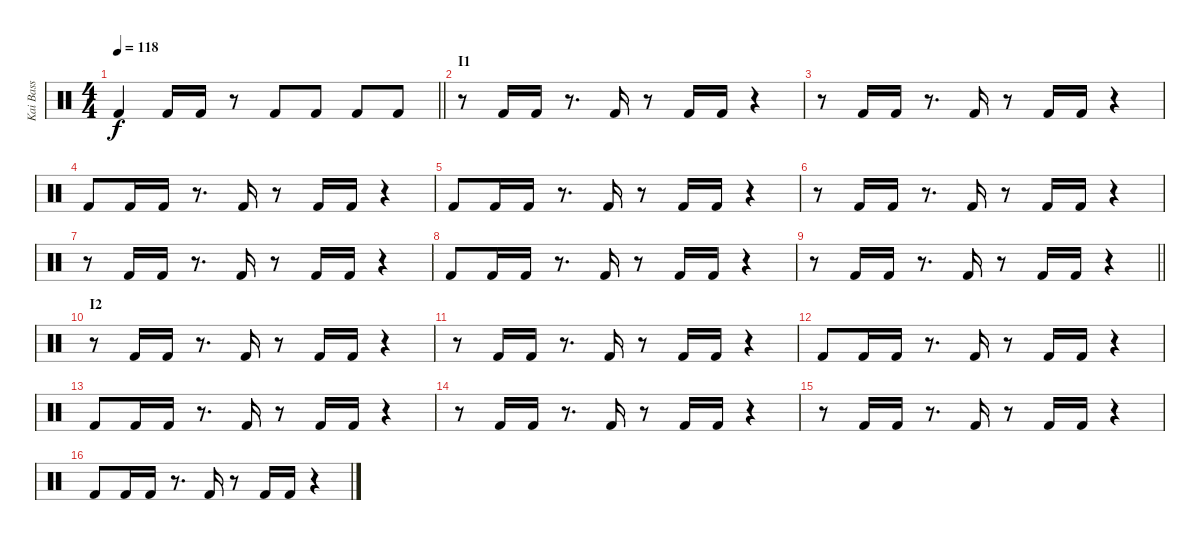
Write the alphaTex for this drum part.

\track ("Kai Bass" "Kai Bass") {instrument percussion}
\staff {score}
\articulation defaults
\ts (4 4)
\tempo 118
\clef neutral
\barLineRight lightlight
\ks c "Kick (hit) 2".4{dy f} "Kick (hit) 2".16 "Kick (hit) 2".16
r.8 "Kick (hit) 2".8 "Kick (hit) 2".8 "Kick (hit) 2".8 "Kick (hit) 2".8 |
\section ("" "I1")
r.8 "Kick (hit) 2".16 "Kick (hit) 2".16 r.8{d} "Kick (hit) 2".16 r.8 "Kick (hit) 2".16 "Kick (hit) 2".16 r.4 |
r.8 "Kick (hit) 2".16 "Kick (hit) 2".16 r.8{d} "Kick (hit) 2".16 r.8 "Kick (hit) 2".16 "Kick (hit) 2".16 r.4 |
"Kick (hit) 2".8 "Kick (hit) 2".16 "Kick (hit) 2".16 r.8{d} "Kick (hit) 2".16 r.8 "Kick (hit) 2".16 "Kick (hit) 2".16 r.4 |
"Kick (hit) 2".8 "Kick (hit) 2".16 "Kick (hit) 2".16 r.8{d} "Kick (hit) 2".16 r.8 "Kick (hit) 2".16 "Kick (hit) 2".16 r.4 |
r.8 "Kick (hit) 2".16 "Kick (hit) 2".16 r.8{d} "Kick (hit) 2".16 r.8 "Kick (hit) 2".16 "Kick (hit) 2".16 r.4 |
r.8 "Kick (hit) 2".16 "Kick (hit) 2".16 r.8{d} "Kick (hit) 2".16 r.8 "Kick (hit) 2".16 "Kick (hit) 2".16 r.4 |
"Kick (hit) 2".8 "Kick (hit) 2".16 "Kick (hit) 2".16 r.8{d} "Kick (hit) 2".16 r.8 "Kick (hit) 2".16 "Kick (hit) 2".16 r.4 |
\barLineRight lightlight
r.8 "Kick (hit) 2".16 "Kick (hit) 2".16 r.8{d} "Kick (hit) 2".16 r.8 "Kick (hit) 2".16 "Kick (hit) 2".16 r.4 |
\section ("" "I2")
r.8 "Kick (hit) 2".16 "Kick (hit) 2".16 r.8{d} "Kick (hit) 2".16 r.8 "Kick (hit) 2".16 "Kick (hit) 2".16 r.4 |
r.8 "Kick (hit) 2".16 "Kick (hit) 2".16 r.8{d} "Kick (hit) 2".16 r.8 "Kick (hit) 2".16 "Kick (hit) 2".16 r.4 |
"Kick (hit) 2".8 "Kick (hit) 2".16 "Kick (hit) 2".16 r.8{d} "Kick (hit) 2".16 r.8 "Kick (hit) 2".16 "Kick (hit) 2".16 r.4 |
"Kick (hit) 2".8 "Kick (hit) 2".16 "Kick (hit) 2".16 r.8{d} "Kick (hit) 2".16 r.8 "Kick (hit) 2".16 "Kick (hit) 2".16 r.4 |
r.8 "Kick (hit) 2".16 "Kick (hit) 2".16 r.8{d} "Kick (hit) 2".16 r.8 "Kick (hit) 2".16 "Kick (hit) 2".16 r.4 |
r.8 "Kick (hit) 2".16 "Kick (hit) 2".16 r.8{d} "Kick (hit) 2".16 r.8 "Kick (hit) 2".16 "Kick (hit) 2".16 r.4 |
"Kick (hit) 2".8 "Kick (hit) 2".16 "Kick (hit) 2".16 r.8{d} "Kick (hit) 2".16 r.8 "Kick (hit) 2".16 "Kick (hit) 2".16 r.4
